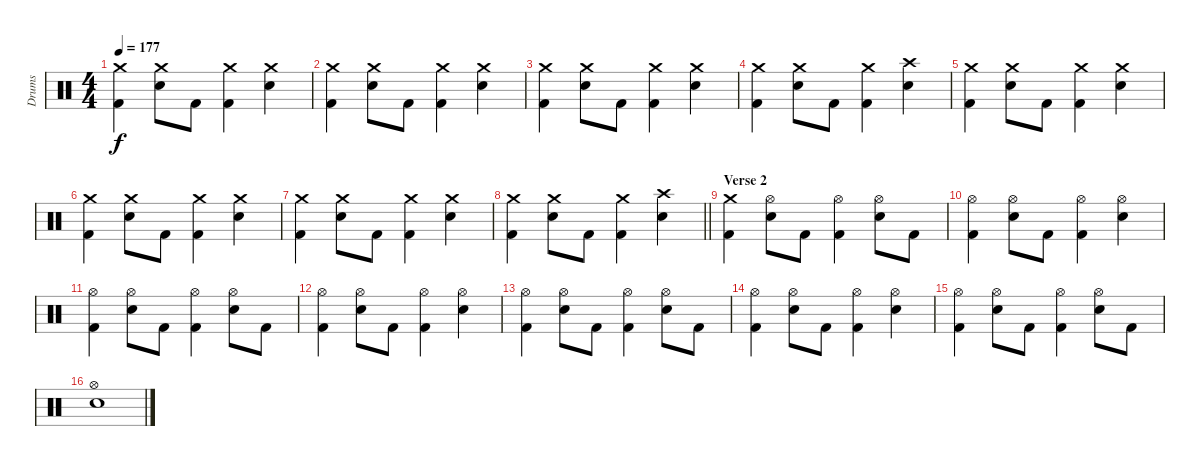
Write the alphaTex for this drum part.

\track ("Drums" "Drums") {instrument percussion}
\staff {score}
\articulation defaults
\ts (4 4)
\tempo 177
\clef neutral
\ks c
("Crash medium (hit)" "Kick (hit) 2").4{dy f} ("Crash medium (hit)" "Electric Snare (hit)").8 "Kick (hit) 2".8 ("Crash medium (hit)" "Kick (hit) 2").4 ("Crash medium (hit)" "Electric Snare (hit)").4 |
("Crash medium (hit)" "Kick (hit) 2").4 ("Crash medium (hit)" "Electric Snare (hit)").8 "Kick (hit) 2".8 ("Crash medium (hit)" "Kick (hit) 2").4 ("Crash medium (hit)" "Electric Snare (hit)").4 |
("Crash medium (hit)" "Kick (hit) 2").4 ("Crash medium (hit)" "Electric Snare (hit)").8 "Kick (hit) 2".8 ("Crash medium (hit)" "Kick (hit) 2").4 ("Crash medium (hit)" "Electric Snare (hit)").4 |
("Crash medium (hit)" "Kick (hit) 2").4 ("Crash medium (hit)" "Electric Snare (hit)").8 "Kick (hit) 2".8 ("Crash medium (hit)" "Kick (hit) 2").4 ("Crash high (hit)" "Electric Snare (hit)").4 |
("Crash medium (hit)" "Kick (hit) 2").4 ("Crash medium (hit)" "Electric Snare (hit)").8 "Kick (hit) 2".8 ("Crash medium (hit)" "Kick (hit) 2").4 ("Crash medium (hit)" "Electric Snare (hit)").4 |
("Crash medium (hit)" "Kick (hit) 2").4 ("Crash medium (hit)" "Electric Snare (hit)").8 "Kick (hit) 2".8 ("Crash medium (hit)" "Kick (hit) 2").4 ("Crash medium (hit)" "Electric Snare (hit)").4 |
("Crash medium (hit)" "Kick (hit) 2").4 ("Crash medium (hit)" "Electric Snare (hit)").8 "Kick (hit) 2".8 ("Crash medium (hit)" "Kick (hit) 2").4 ("Crash medium (hit)" "Electric Snare (hit)").4 |
\barLineRight lightlight
("Crash medium (hit)" "Kick (hit) 2").4 ("Crash medium (hit)" "Electric Snare (hit)").8 "Kick (hit) 2".8 ("Crash medium (hit)" "Kick (hit) 2").4 ("Crash high (hit)" "Electric Snare (hit)").4 |
\section ("" "Verse 2")
("Crash medium (hit)" "Kick (hit) 2").4 ("Hi-Hat (open)" "Electric Snare (hit)").8 "Kick (hit) 2".8 ("Hi-Hat (open)" "Kick (hit) 2").4 ("Hi-Hat (open)" "Electric Snare (hit)").8 "Kick (hit) 2".8 |
("Hi-Hat (open)" "Kick (hit) 2").4 ("Hi-Hat (open)" "Electric Snare (hit)").8 "Kick (hit) 2".8 ("Hi-Hat (open)" "Kick (hit) 2").4 ("Hi-Hat (open)" "Electric Snare (hit)").4 |
("Hi-Hat (open)" "Kick (hit) 2").4 ("Hi-Hat (open)" "Electric Snare (hit)").8 "Kick (hit) 2".8 ("Hi-Hat (open)" "Kick (hit) 2").4 ("Hi-Hat (open)" "Electric Snare (hit)").8 "Kick (hit) 2".8 |
("Hi-Hat (open)" "Kick (hit) 2").4 ("Hi-Hat (open)" "Electric Snare (hit)").8 "Kick (hit) 2".8 ("Hi-Hat (open)" "Kick (hit) 2").4 ("Hi-Hat (open)" "Electric Snare (hit)").4 |
("Hi-Hat (open)" "Kick (hit) 2").4 ("Hi-Hat (open)" "Electric Snare (hit)").8 "Kick (hit) 2".8 ("Hi-Hat (open)" "Kick (hit) 2").4 ("Hi-Hat (open)" "Electric Snare (hit)").8 "Kick (hit) 2".8 |
("Hi-Hat (open)" "Kick (hit) 2").4 ("Hi-Hat (open)" "Electric Snare (hit)").8 "Kick (hit) 2".8 ("Hi-Hat (open)" "Kick (hit) 2").4 ("Hi-Hat (open)" "Electric Snare (hit)").4 |
("Hi-Hat (open)" "Kick (hit) 2").4 ("Hi-Hat (open)" "Electric Snare (hit)").8 "Kick (hit) 2".8 ("Hi-Hat (open)" "Kick (hit) 2").4 ("Hi-Hat (open)" "Electric Snare (hit)").8 "Kick (hit) 2".8 |
("Hi-Hat (open)" "Electric Snare (hit)").1
